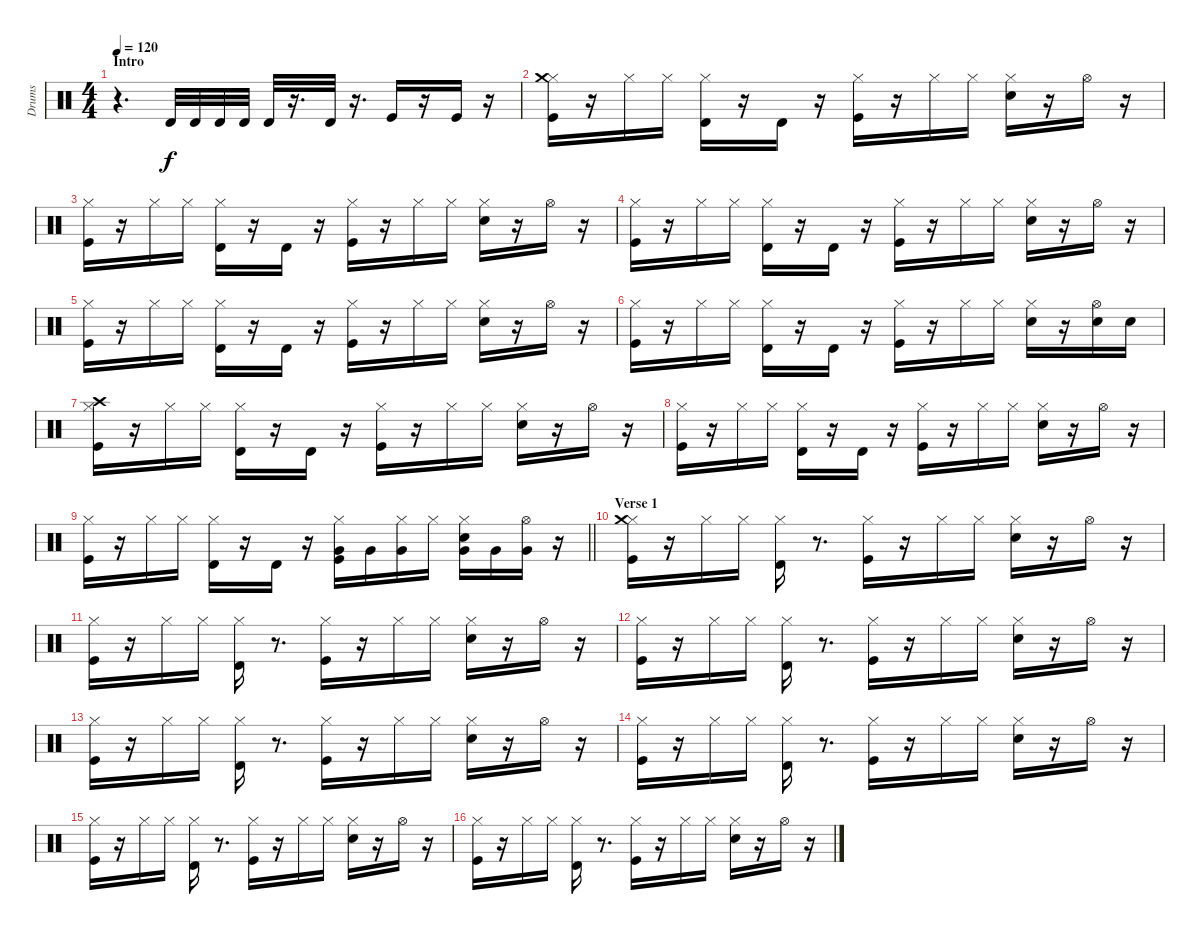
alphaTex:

\track ("Drums" "Drums") {instrument percussion}
\staff {score}
\articulation defaults
\ts (4 4)
\section ("" "Intro")
\tempo 120
\clef neutral
\ks c
r.4{d dy f} "Timbale high (hit)".32 "Timbale high (hit)".32 "Timbale high (hit)".32 "Timbale high (hit)".32 "Timbale high (hit)".32 r.16{d} "Timbale high (hit)".32 r.16{d} "Kick (hit)".16 r.16 "Kick (hit)".16 r.16 |
("Hi-Hat (closed)" "Kick (hit)" "Crash medium (hit)").16 r.16 "Hi-Hat (closed)".16 "Hi-Hat (closed)".16 ("Hi-Hat (closed)" "Timbale high (hit)").16 r.16 "Timbale high (hit)".16 r.16 ("Hi-Hat (closed)" "Kick (hit)").16 r.16 "Hi-Hat (closed)".16 "Hi-Hat (closed)".16 ("Hi-Hat (closed)" "Snare (hit) 2").16 r.16 "Hi-Hat (open)".16 r.16 |
("Hi-Hat (closed)" "Kick (hit)").16 r.16 "Hi-Hat (closed)".16 "Hi-Hat (closed)".16 ("Hi-Hat (closed)" "Timbale high (hit)").16 r.16 "Timbale high (hit)".16 r.16 ("Hi-Hat (closed)" "Kick (hit)").16 r.16 "Hi-Hat (closed)".16 "Hi-Hat (closed)".16 ("Hi-Hat (closed)" "Snare (hit) 2").16 r.16 "Hi-Hat (open)".16 r.16 |
("Hi-Hat (closed)" "Kick (hit)").16 r.16 "Hi-Hat (closed)".16 "Hi-Hat (closed)".16 ("Hi-Hat (closed)" "Timbale high (hit)").16 r.16 "Timbale high (hit)".16 r.16 ("Hi-Hat (closed)" "Kick (hit)").16 r.16 "Hi-Hat (closed)".16 "Hi-Hat (closed)".16 ("Hi-Hat (closed)" "Snare (hit) 2").16 r.16 "Hi-Hat (open)".16 r.16 |
("Hi-Hat (closed)" "Kick (hit)").16 r.16 "Hi-Hat (closed)".16 "Hi-Hat (closed)".16 ("Hi-Hat (closed)" "Timbale high (hit)").16 r.16 "Timbale high (hit)".16 r.16 ("Hi-Hat (closed)" "Kick (hit)").16 r.16 "Hi-Hat (closed)".16 "Hi-Hat (closed)".16 ("Hi-Hat (closed)" "Snare (hit) 2").16 r.16 "Hi-Hat (open)".16 r.16 |
("Hi-Hat (closed)" "Kick (hit)").16 r.16 "Hi-Hat (closed)".16 "Hi-Hat (closed)".16 ("Hi-Hat (closed)" "Timbale high (hit)").16 r.16 "Timbale high (hit)".16 r.16 ("Hi-Hat (closed)" "Kick (hit)").16 r.16 "Hi-Hat (closed)".16 "Hi-Hat (closed)".16 ("Hi-Hat (closed)" "Snare (hit) 2").16 r.16 ("Snare (hit) 2" "Hi-Hat (open)").16 "Snare (hit) 2".16 |
("Crash high (hit)" "Hi-Hat (closed)" "Kick (hit)").16 r.16 "Hi-Hat (closed)".16 "Hi-Hat (closed)".16 ("Hi-Hat (closed)" "Timbale high (hit)").16 r.16 "Timbale high (hit)".16 r.16 ("Hi-Hat (closed)" "Kick (hit)").16 r.16 "Hi-Hat (closed)".16 "Hi-Hat (closed)".16 ("Hi-Hat (closed)" "Snare (hit) 2").16 r.16 "Hi-Hat (open)".16 r.16 |
("Hi-Hat (closed)" "Kick (hit)").16 r.16 "Hi-Hat (closed)".16 "Hi-Hat (closed)".16 ("Hi-Hat (closed)" "Timbale high (hit)").16 r.16 "Timbale high (hit)".16 r.16 ("Hi-Hat (closed)" "Kick (hit)").16 r.16 "Hi-Hat (closed)".16 "Hi-Hat (closed)".16 ("Hi-Hat (closed)" "Snare (hit) 2").16 r.16 "Hi-Hat (open)".16 r.16 |
\barLineRight lightlight
("Hi-Hat (closed)" "Kick (hit)").16 r.16 "Hi-Hat (closed)".16 "Hi-Hat (closed)".16 ("Hi-Hat (closed)" "Timbale high (hit)").16 r.16 "Timbale high (hit)".16 r.16 ("Very Low Tom (hit)" "Hi-Hat (closed)" "Kick (hit)").16 "Very Low Tom (hit)".16 ("Very Low Tom (hit)" "Hi-Hat (closed)").16 "Hi-Hat (closed)".16 ("Very Low Tom (hit)" "Hi-Hat (closed)" "Snare (hit) 2").16 "Very Low Tom (hit)".16 ("Very Low Tom (hit)" "Hi-Hat (open)").16 r.16 |
\section ("" "Verse 1")
("Hi-Hat (closed)" "Kick (hit)" "Crash medium (hit)").16 r.16 "Hi-Hat (closed)".16 "Hi-Hat (closed)".16 ("Hi-Hat (closed)" "Timbale high (hit)").16 r.8{d} ("Hi-Hat (closed)" "Kick (hit)").16 r.16 "Hi-Hat (closed)".16 "Hi-Hat (closed)".16 ("Hi-Hat (closed)" "Snare (hit) 2").16 r.16 "Hi-Hat (open)".16 r.16 |
("Hi-Hat (closed)" "Kick (hit)").16 r.16 "Hi-Hat (closed)".16 "Hi-Hat (closed)".16 ("Hi-Hat (closed)" "Timbale high (hit)").16 r.8{d} ("Hi-Hat (closed)" "Kick (hit)").16 r.16 "Hi-Hat (closed)".16 "Hi-Hat (closed)".16 ("Hi-Hat (closed)" "Snare (hit) 2").16 r.16 "Hi-Hat (open)".16 r.16 |
("Hi-Hat (closed)" "Kick (hit)").16 r.16 "Hi-Hat (closed)".16 "Hi-Hat (closed)".16 ("Hi-Hat (closed)" "Timbale high (hit)").16 r.8{d} ("Hi-Hat (closed)" "Kick (hit)").16 r.16 "Hi-Hat (closed)".16 "Hi-Hat (closed)".16 ("Hi-Hat (closed)" "Snare (hit) 2").16 r.16 "Hi-Hat (open)".16 r.16 |
("Hi-Hat (closed)" "Kick (hit)").16 r.16 "Hi-Hat (closed)".16 "Hi-Hat (closed)".16 ("Hi-Hat (closed)" "Timbale high (hit)").16 r.8{d} ("Hi-Hat (closed)" "Kick (hit)").16 r.16 "Hi-Hat (closed)".16 "Hi-Hat (closed)".16 ("Hi-Hat (closed)" "Snare (hit) 2").16 r.16 "Hi-Hat (open)".16 r.16 |
("Hi-Hat (closed)" "Kick (hit)").16 r.16 "Hi-Hat (closed)".16 "Hi-Hat (closed)".16 ("Hi-Hat (closed)" "Timbale high (hit)").16 r.8{d} ("Hi-Hat (closed)" "Kick (hit)").16 r.16 "Hi-Hat (closed)".16 "Hi-Hat (closed)".16 ("Hi-Hat (closed)" "Snare (hit) 2").16 r.16 "Hi-Hat (open)".16 r.16 |
("Hi-Hat (closed)" "Kick (hit)").16 r.16 "Hi-Hat (closed)".16 "Hi-Hat (closed)".16 ("Hi-Hat (closed)" "Timbale high (hit)").16 r.8{d} ("Hi-Hat (closed)" "Kick (hit)").16 r.16 "Hi-Hat (closed)".16 "Hi-Hat (closed)".16 ("Hi-Hat (closed)" "Snare (hit) 2").16 r.16 "Hi-Hat (open)".16 r.16 |
("Hi-Hat (closed)" "Kick (hit)").16 r.16 "Hi-Hat (closed)".16 "Hi-Hat (closed)".16 ("Hi-Hat (closed)" "Timbale high (hit)").16 r.8{d} ("Hi-Hat (closed)" "Kick (hit)").16 r.16 "Hi-Hat (closed)".16 "Hi-Hat (closed)".16 ("Hi-Hat (closed)" "Snare (hit) 2").16 r.16 "Hi-Hat (open)".16 r.16
